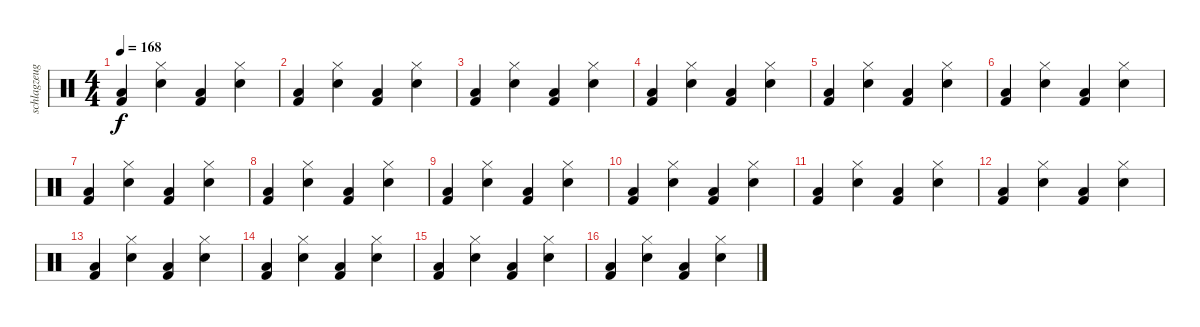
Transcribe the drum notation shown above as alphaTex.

\track ("schlagzeug" "schlagzeug") {instrument percussion}
\staff {score}
\articulation defaults
\ts (4 4)
\tempo 168
\clef neutral
\ks c
("Low Floor Tom (hit)" "Kick (hit) 2").4{dy f} ("Electric Snare (hit)" "Hi-Hat (closed)").4 ("Low Floor Tom (hit)" "Kick (hit) 2").4 ("Electric Snare (hit)" "Hi-Hat (closed)").4 |
("Low Floor Tom (hit)" "Kick (hit) 2").4 ("Electric Snare (hit)" "Hi-Hat (closed)").4 ("Low Floor Tom (hit)" "Kick (hit) 2").4 ("Electric Snare (hit)" "Hi-Hat (closed)").4 |
("Low Floor Tom (hit)" "Kick (hit) 2").4 ("Electric Snare (hit)" "Hi-Hat (closed)").4 ("Low Floor Tom (hit)" "Kick (hit) 2").4 ("Electric Snare (hit)" "Hi-Hat (closed)").4 |
("Low Floor Tom (hit)" "Kick (hit) 2").4 ("Electric Snare (hit)" "Hi-Hat (closed)").4 ("Low Floor Tom (hit)" "Kick (hit) 2").4 ("Electric Snare (hit)" "Hi-Hat (closed)").4 |
("Low Floor Tom (hit)" "Kick (hit) 2").4 ("Electric Snare (hit)" "Hi-Hat (closed)").4 ("Low Floor Tom (hit)" "Kick (hit) 2").4 ("Electric Snare (hit)" "Hi-Hat (closed)").4 |
("Low Floor Tom (hit)" "Kick (hit) 2").4 ("Electric Snare (hit)" "Hi-Hat (closed)").4 ("Low Floor Tom (hit)" "Kick (hit) 2").4 ("Electric Snare (hit)" "Hi-Hat (closed)").4 |
("Low Floor Tom (hit)" "Kick (hit) 2").4 ("Electric Snare (hit)" "Hi-Hat (closed)").4 ("Low Floor Tom (hit)" "Kick (hit) 2").4 ("Electric Snare (hit)" "Hi-Hat (closed)").4 |
("Low Floor Tom (hit)" "Kick (hit) 2").4 ("Electric Snare (hit)" "Hi-Hat (closed)").4 ("Low Floor Tom (hit)" "Kick (hit) 2").4 ("Electric Snare (hit)" "Hi-Hat (closed)").4 |
("Low Floor Tom (hit)" "Kick (hit) 2").4 ("Electric Snare (hit)" "Hi-Hat (closed)").4 ("Low Floor Tom (hit)" "Kick (hit) 2").4 ("Electric Snare (hit)" "Hi-Hat (closed)").4 |
("Low Floor Tom (hit)" "Kick (hit) 2").4 ("Electric Snare (hit)" "Hi-Hat (closed)").4 ("Low Floor Tom (hit)" "Kick (hit) 2").4 ("Electric Snare (hit)" "Hi-Hat (closed)").4 |
("Low Floor Tom (hit)" "Kick (hit) 2").4 ("Electric Snare (hit)" "Hi-Hat (closed)").4 ("Low Floor Tom (hit)" "Kick (hit) 2").4 ("Electric Snare (hit)" "Hi-Hat (closed)").4 |
("Low Floor Tom (hit)" "Kick (hit) 2").4 ("Electric Snare (hit)" "Hi-Hat (closed)").4 ("Low Floor Tom (hit)" "Kick (hit) 2").4 ("Electric Snare (hit)" "Hi-Hat (closed)").4 |
("Low Floor Tom (hit)" "Kick (hit) 2").4 ("Electric Snare (hit)" "Hi-Hat (closed)").4 ("Low Floor Tom (hit)" "Kick (hit) 2").4 ("Electric Snare (hit)" "Hi-Hat (closed)").4 |
("Low Floor Tom (hit)" "Kick (hit) 2").4 ("Electric Snare (hit)" "Hi-Hat (closed)").4 ("Low Floor Tom (hit)" "Kick (hit) 2").4 ("Electric Snare (hit)" "Hi-Hat (closed)").4 |
("Low Floor Tom (hit)" "Kick (hit) 2").4 ("Electric Snare (hit)" "Hi-Hat (closed)").4 ("Low Floor Tom (hit)" "Kick (hit) 2").4 ("Electric Snare (hit)" "Hi-Hat (closed)").4 |
("Low Floor Tom (hit)" "Kick (hit) 2").4 ("Electric Snare (hit)" "Hi-Hat (closed)").4 ("Low Floor Tom (hit)" "Kick (hit) 2").4 ("Electric Snare (hit)" "Hi-Hat (closed)").4
